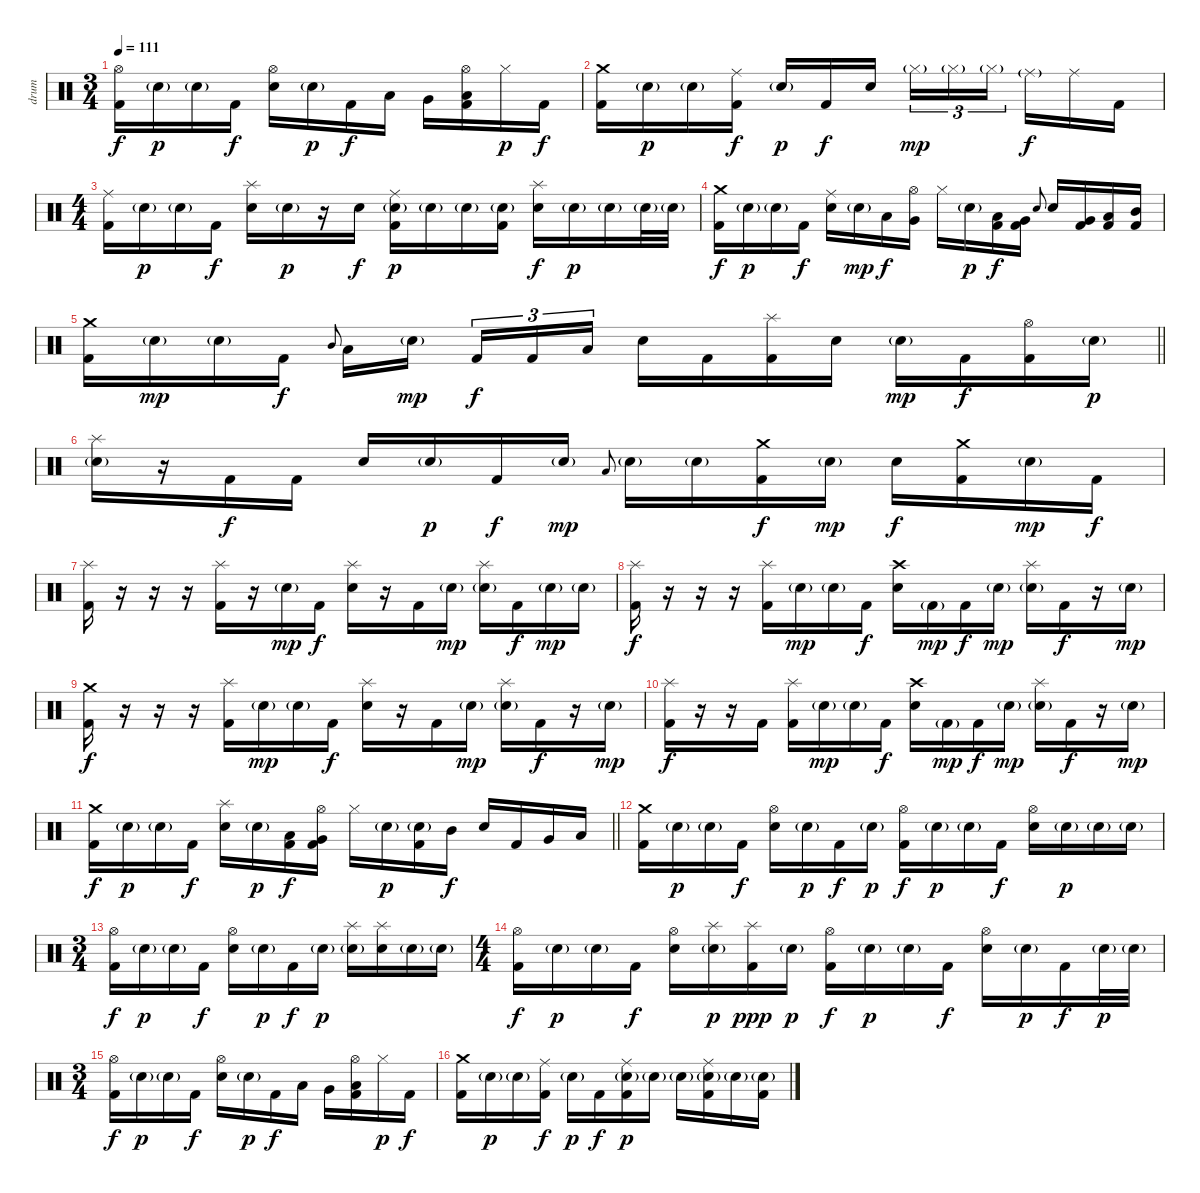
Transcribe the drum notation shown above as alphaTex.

\track ("drum" "drum") {instrument percussion}
\staff {score}
\articulation defaults
\ts (3 4)
\tempo 111
\clef neutral
\ks c
("Hi-Hat (open)" "Kick (hit) 2").16{dy f} "Electric Snare (hit)"{g}.16{dy p} "Electric Snare (hit)"{g}.16 "Kick (hit) 2".16{dy f} ("Hi-Hat (open)" "Electric Snare (hit)").16 "Electric Snare (hit)"{g}.16{dy p} "Kick (hit) 2".16{dy f} "Low Tom (hit)".16 "Very Low Tom (hit)".16 ("Hi-Hat (open)" "Low Floor Tom (hit)" "Kick (hit) 2").16 "Hi-Hat (closed)".16{dy p} "Kick (hit) 2".16{dy f} |
("Crash medium (hit)" "Kick (hit) 2").16 "Electric Snare (hit)"{g}.16{dy p} "Electric Snare (hit)"{g}.16 ("Ride (middle)" "Kick (hit) 2").16{dy f} "Electric Snare (hit)"{g}.16{dy p} "Kick (hit) 2".16{dy f} "Electric Snare (hit)".16{beam splitsecondary} "Hi-Hat (closed)"{g}.16{tu (3 2) dy mp} "Hi-Hat (closed)"{g}.16{tu (3 2)} "Hi-Hat (closed)"{g}.16{tu (3 2) beam splitsecondary} "Ride (middle)"{g}.16{dy f} "Ride (middle)".16 "Kick (hit) 2".16 |
\ts (4 4)
("Ride (middle)" "Kick (hit) 2").16 "Electric Snare (hit)"{g}.16{dy p} "Electric Snare (hit)"{g}.16 "Kick (hit) 2".16{dy f} ("Splash (hit)" "Electric Snare (hit)").16 "Electric Snare (hit)"{g}.16{dy p} r.16 "Electric Snare (hit)".16{dy f} ("Ride (middle)" "Electric Snare (hit)"{g} "Kick (hit) 2").16{dy p} "Electric Snare (hit)"{g}.16 "Electric Snare (hit)"{g}.16 ("Electric Snare (hit)"{g} "Kick (hit) 2").16 ("Splash (hit)" "Electric Snare (hit)").16{dy f} "Electric Snare (hit)"{g}.16{dy p} "Electric Snare (hit)"{g}.16 "Electric Snare (hit)"{g}.32 "Electric Snare (hit)"{g}.32 |
("Crash medium (hit)" "Kick (hit) 2").16{dy f} "Electric Snare (hit)"{g}.16{dy p} "Electric Snare (hit)"{g}.16 "Kick (hit) 2".16{dy f} ("Ride (middle)" "Electric Snare (hit)").16 "Electric Snare (hit)"{g}.16{dy mp} "Low Tom (hit)".16{dy f} ("Hi-Hat (open)" "Very Low Tom (hit)").16 "Hi-Hat (closed)".16 "Electric Snare (hit)"{g}.16{dy p} ("Low Tom (hit)" "Kick (hit) 2").16{dy f} ("Very Low Tom (hit)" "Kick (hit) 2").16 "Electric Snare (hit)".8{gr onbeat} "Electric Snare (hit)".16 ("Very Low Tom (hit)" "Kick (hit) 2").16 ("Low Tom (hit)" "Kick (hit) 2").16 ("Mid Tom (hit)" "Kick (hit) 2").16 |
\barLineRight lightlight
("Crash medium (hit)" "Kick (hit) 2").16 "Electric Snare (hit)"{g}.16{dy mp} "Electric Snare (hit)"{g}.16 "Kick (hit) 2".16{dy f} "Mid Tom (hit)".8{gr onbeat} "Low Tom (hit)".16 "Electric Snare (hit)"{g}.16{dy mp beam splitsecondary} "Kick (hit) 2".16{tu (3 2) dy f} "Kick (hit) 2".16{tu (3 2)} "Low Tom (hit)".16{tu (3 2)} "Electric Snare (hit)".16 "Kick (hit) 2".16 ("Splash (hit)" "Kick (hit) 2").16 "Electric Snare (hit)".16 "Electric Snare (hit)"{g}.16{dy mp} "Kick (hit) 2".16{dy f} ("Hi-Hat (open)" "Kick (hit) 2").16 "Electric Snare (hit)"{g}.16{dy p} |
\section ("" "")
("Splash (hit)" "Electric Snare (hit)"{g}).16 r.16 "Kick (hit) 2".16{dy f} "Kick (hit) 2".16 "Electric Snare (hit)".16 "Electric Snare (hit)"{g}.16{dy p} "Kick (hit) 2".16{dy f} "Electric Snare (hit)"{g}.16{dy mp} "Low Tom (hit)".8{gr onbeat} "Electric Snare (hit)"{g}.16 "Electric Snare (hit)"{g}.16 ("Crash medium (hit)" "Kick (hit) 2").16{dy f} "Electric Snare (hit)"{g}.16{dy mp} "Electric Snare (hit)".16{dy f} ("Crash medium (hit)" "Kick (hit) 2").16 "Electric Snare (hit)"{g}.16{dy mp} "Kick (hit) 2".16{dy f} |
("Splash (hit)" "Kick (hit) 2").16 r.16 r.16 r.16 ("Splash (hit)" "Kick (hit) 2").16 r.16 "Electric Snare (hit)"{g}.16{dy mp} "Kick (hit) 2".16{dy f} ("Splash (hit)" "Electric Snare (hit)").16 r.16 "Kick (hit) 2".16 "Electric Snare (hit)"{g}.16{dy mp} ("Splash (hit)" "Electric Snare (hit)"{g}).16 "Kick (hit) 2".16{dy f} "Electric Snare (hit)"{g}.16{dy mp} "Electric Snare (hit)"{g}.16 |
("Splash (hit)" "Kick (hit) 2").16{dy f} r.16 r.16 r.16 ("Splash (hit)" "Kick (hit) 2").16 "Electric Snare (hit)"{g}.16{dy mp} "Electric Snare (hit)"{g}.16 "Kick (hit) 2".16{dy f} ("Crash high (hit)" "Electric Snare (hit)").16 "Kick (hit) 2"{g}.16{dy mp} "Kick (hit) 2".16{dy f} "Electric Snare (hit)"{g}.16{dy mp} ("Splash (hit)" "Electric Snare (hit)"{g}).16 "Kick (hit) 2".16{dy f} r.16 "Electric Snare (hit)"{g}.16{dy mp} |
("Crash medium (hit)" "Kick (hit) 2").16{dy f} r.16 r.16 r.16 ("Splash (hit)" "Kick (hit) 2").16 "Electric Snare (hit)"{g}.16{dy mp} "Electric Snare (hit)"{g}.16 "Kick (hit) 2".16{dy f} ("Splash (hit)" "Electric Snare (hit)").16 r.16 "Kick (hit) 2".16 "Electric Snare (hit)"{g}.16{dy mp} ("Splash (hit)" "Electric Snare (hit)"{g}).16 "Kick (hit) 2".16{dy f} r.16 "Electric Snare (hit)"{g}.16{dy mp} |
("Splash (hit)" "Kick (hit) 2").16{dy f} r.16 r.16 "Kick (hit) 2".16 ("Splash (hit)" "Kick (hit) 2").16 "Electric Snare (hit)"{g}.16{dy mp} "Electric Snare (hit)"{g}.16 "Kick (hit) 2".16{dy f} ("Crash high (hit)" "Electric Snare (hit)").16 "Kick (hit) 2"{g}.16{dy mp} "Kick (hit) 2".16{dy f} "Electric Snare (hit)"{g}.16{dy mp} ("Splash (hit)" "Electric Snare (hit)"{g}).16 "Kick (hit) 2".16{dy f} r.16 "Electric Snare (hit)"{g}.16{dy mp} |
\barLineRight lightlight
("Crash medium (hit)" "Kick (hit) 2").16{dy f} "Electric Snare (hit)"{g}.16{dy p} "Electric Snare (hit)"{g}.16 "Kick (hit) 2".16{dy f} ("Splash (hit)" "Electric Snare (hit)").16 "Electric Snare (hit)"{g}.16{dy p} ("Low Tom (hit)" "Kick (hit) 2").16{dy f} ("Hi-Hat (open)" "Very Low Tom (hit)" "Kick (hit) 2").16 "Hi-Hat (closed)".16 "Electric Snare (hit)"{g}.16{dy p} ("Electric Snare (hit)"{g} "Kick (hit) 2").16 "Mid Tom (hit)".16{dy f} "Electric Snare (hit)".16 "Kick (hit) 2".16 "Very Low Tom (hit)".16 "Low Tom (hit)".16 |
\section ("" "")
("Crash medium (hit)" "Kick (hit) 2").16 "Electric Snare (hit)"{g}.16{dy p} "Electric Snare (hit)"{g}.16 "Kick (hit) 2".16{dy f} ("Hi-Hat (open)" "Electric Snare (hit)").16 "Electric Snare (hit)"{g}.16{dy p} "Kick (hit) 2".16{dy f} "Electric Snare (hit)"{g}.16{dy p} ("Hi-Hat (open)" "Kick (hit) 2").16{dy f} "Electric Snare (hit)"{g}.16{dy p} "Electric Snare (hit)"{g}.16 "Kick (hit) 2".16{dy f} ("Hi-Hat (open)" "Electric Snare (hit)").16 "Electric Snare (hit)"{g}.16{dy p} "Electric Snare (hit)"{g}.16 "Electric Snare (hit)"{g}.16 |
\ts (3 4)
("Hi-Hat (open)" "Kick (hit) 2").16{dy f} "Electric Snare (hit)"{g}.16{dy p} "Electric Snare (hit)"{g}.16 "Kick (hit) 2".16{dy f} ("Hi-Hat (open)" "Electric Snare (hit)").16 "Electric Snare (hit)"{g}.16{dy p} "Kick (hit) 2".16{dy f} "Electric Snare (hit)"{g}.16{dy p} ("Splash (hit)" "Electric Snare (hit)"{g}).16 ("Splash (hit)" "Electric Snare (hit)").16 "Electric Snare (hit)"{g}.16 "Electric Snare (hit)"{g}.16 |
\ts (4 4)
("Hi-Hat (open)" "Kick (hit) 2").16{dy f} "Electric Snare (hit)"{g}.16{dy p} "Electric Snare (hit)"{g}.16 "Kick (hit) 2".16{dy f} ("Hi-Hat (open)" "Electric Snare (hit)").16 ("Splash (hit)" "Electric Snare (hit)"{g}).16{dy p} ("Splash (hit)" "Kick (hit) 2").16{dy ppp} "Electric Snare (hit)"{g}.16{dy p} ("Hi-Hat (open)" "Kick (hit) 2").16{dy f} "Electric Snare (hit)"{g}.16{dy p} "Electric Snare (hit)"{g}.16 "Kick (hit) 2".16{dy f} ("Hi-Hat (open)" "Electric Snare (hit)").16 "Electric Snare (hit)"{g}.16{dy p} "Kick (hit) 2".16{dy f} "Electric Snare (hit)"{g}.32{dy p} "Electric Snare (hit)"{g}.32 |
\ts (3 4)
("Hi-Hat (open)" "Kick (hit) 2").16{dy f} "Electric Snare (hit)"{g}.16{dy p} "Electric Snare (hit)"{g}.16 "Kick (hit) 2".16{dy f} ("Hi-Hat (open)" "Electric Snare (hit)").16 "Electric Snare (hit)"{g}.16{dy p} "Kick (hit) 2".16{dy f} "Low Tom (hit)".16 "Very Low Tom (hit)".16 ("Hi-Hat (open)" "Low Floor Tom (hit)" "Kick (hit) 2").16 "Hi-Hat (closed)".16{dy p} "Kick (hit) 2".16{dy f} |
("Crash medium (hit)" "Kick (hit) 2").16 "Electric Snare (hit)"{g}.16{dy p} "Electric Snare (hit)"{g}.16 ("Ride (middle)" "Kick (hit) 2").16{dy f} "Electric Snare (hit)"{g}.16{dy p} "Kick (hit) 2".16{dy f} ("Ride (middle)" "Electric Snare (hit)"{g} "Kick (hit) 2").16{dy p} "Electric Snare (hit)"{g}.16 "Electric Snare (hit)"{g}.16 ("Ride (middle)" "Electric Snare (hit)"{g} "Kick (hit) 2").16 "Electric Snare (hit)"{g}.16 ("Electric Snare (hit)"{g} "Kick (hit) 2").16
